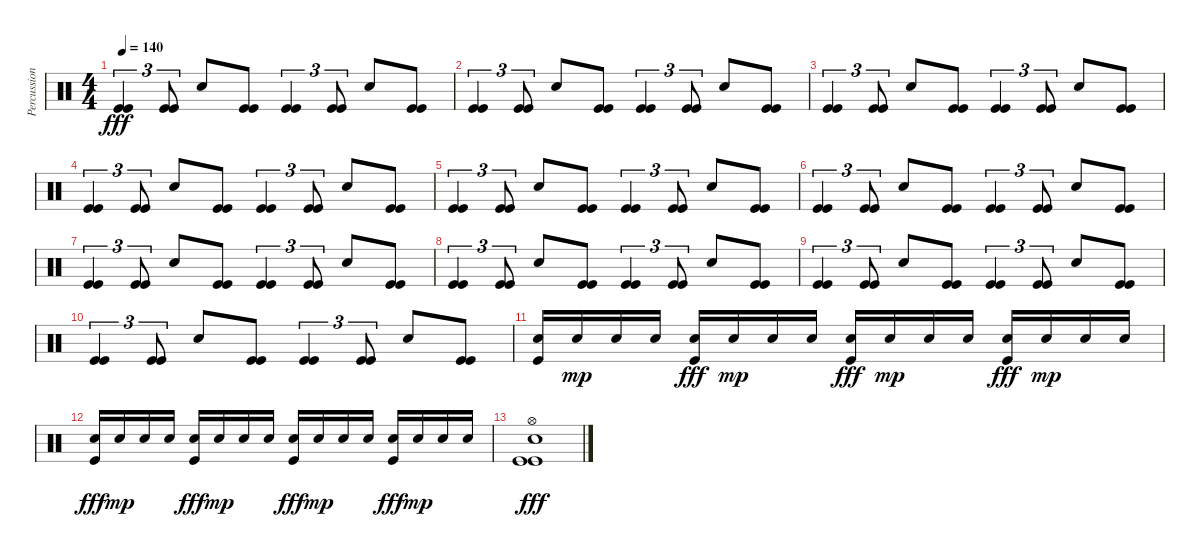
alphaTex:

\track ("Percussions" "Percussion") {instrument percussion}
\staff {score}
\articulation defaults
\ts (4 4)
\tempo 140
\clef neutral
\ks c
("Kick (hit)" "Kick (hit)").4{tu (3 2) dy fff} ("Kick (hit)" "Kick (hit)").8{tu (3 2)} "Snare (hit) 2".8 ("Kick (hit)" "Kick (hit)").8 ("Kick (hit)" "Kick (hit)").4{tu (3 2)} ("Kick (hit)" "Kick (hit)").8{tu (3 2)} "Snare (hit) 2".8 ("Kick (hit)" "Kick (hit)").8 |
("Kick (hit)" "Kick (hit)").4{tu (3 2)} ("Kick (hit)" "Kick (hit)").8{tu (3 2)} "Snare (hit) 2".8 ("Kick (hit)" "Kick (hit)").8 ("Kick (hit)" "Kick (hit)").4{tu (3 2)} ("Kick (hit)" "Kick (hit)").8{tu (3 2)} "Snare (hit) 2".8 ("Kick (hit)" "Kick (hit)").8 |
("Kick (hit)" "Kick (hit)").4{tu (3 2)} ("Kick (hit)" "Kick (hit)").8{tu (3 2)} "Snare (hit) 2".8 ("Kick (hit)" "Kick (hit)").8 ("Kick (hit)" "Kick (hit)").4{tu (3 2)} ("Kick (hit)" "Kick (hit)").8{tu (3 2)} "Snare (hit) 2".8 ("Kick (hit)" "Kick (hit)").8 |
("Kick (hit)" "Kick (hit)").4{tu (3 2)} ("Kick (hit)" "Kick (hit)").8{tu (3 2)} "Snare (hit) 2".8 ("Kick (hit)" "Kick (hit)").8 ("Kick (hit)" "Kick (hit)").4{tu (3 2)} ("Kick (hit)" "Kick (hit)").8{tu (3 2)} "Snare (hit) 2".8 ("Kick (hit)" "Kick (hit)").8 |
("Kick (hit)" "Kick (hit)").4{tu (3 2)} ("Kick (hit)" "Kick (hit)").8{tu (3 2)} "Snare (hit) 2".8 ("Kick (hit)" "Kick (hit)").8 ("Kick (hit)" "Kick (hit)").4{tu (3 2)} ("Kick (hit)" "Kick (hit)").8{tu (3 2)} "Snare (hit) 2".8 ("Kick (hit)" "Kick (hit)").8 |
("Kick (hit)" "Kick (hit)").4{tu (3 2)} ("Kick (hit)" "Kick (hit)").8{tu (3 2)} "Snare (hit) 2".8 ("Kick (hit)" "Kick (hit)").8 ("Kick (hit)" "Kick (hit)").4{tu (3 2)} ("Kick (hit)" "Kick (hit)").8{tu (3 2)} "Snare (hit) 2".8 ("Kick (hit)" "Kick (hit)").8 |
("Kick (hit)" "Kick (hit)").4{tu (3 2)} ("Kick (hit)" "Kick (hit)").8{tu (3 2)} "Snare (hit) 2".8 ("Kick (hit)" "Kick (hit)").8 ("Kick (hit)" "Kick (hit)").4{tu (3 2)} ("Kick (hit)" "Kick (hit)").8{tu (3 2)} "Snare (hit) 2".8 ("Kick (hit)" "Kick (hit)").8 |
("Kick (hit)" "Kick (hit)").4{tu (3 2)} ("Kick (hit)" "Kick (hit)").8{tu (3 2)} "Snare (hit) 2".8 ("Kick (hit)" "Kick (hit)").8 ("Kick (hit)" "Kick (hit)").4{tu (3 2)} ("Kick (hit)" "Kick (hit)").8{tu (3 2)} "Snare (hit) 2".8 ("Kick (hit)" "Kick (hit)").8 |
("Kick (hit)" "Kick (hit)").4{tu (3 2)} ("Kick (hit)" "Kick (hit)").8{tu (3 2)} "Snare (hit) 2".8 ("Kick (hit)" "Kick (hit)").8 ("Kick (hit)" "Kick (hit)").4{tu (3 2)} ("Kick (hit)" "Kick (hit)").8{tu (3 2)} "Snare (hit) 2".8 ("Kick (hit)" "Kick (hit)").8 |
("Kick (hit)" "Kick (hit)").4{tu (3 2)} ("Kick (hit)" "Kick (hit)").8{tu (3 2)} "Snare (hit) 2".8 ("Kick (hit)" "Kick (hit)").8 ("Kick (hit)" "Kick (hit)").4{tu (3 2)} ("Kick (hit)" "Kick (hit)").8{tu (3 2)} "Snare (hit) 2".8 ("Kick (hit)" "Kick (hit)").8 |
("Snare (hit) 2" "Kick (hit)").16 "Snare (hit) 2".16{dy mp} "Snare (hit) 2".16 "Snare (hit) 2".16 ("Snare (hit) 2" "Kick (hit)").16{dy fff} "Snare (hit) 2".16{dy mp} "Snare (hit) 2".16 "Snare (hit) 2".16 ("Snare (hit) 2" "Kick (hit)").16{dy fff} "Snare (hit) 2".16{dy mp} "Snare (hit) 2".16 "Snare (hit) 2".16 ("Snare (hit) 2" "Kick (hit)").16{dy fff} "Snare (hit) 2".16{dy mp} "Snare (hit) 2".16 "Snare (hit) 2".16 |
("Snare (hit) 2" "Kick (hit)").16{dy fff} "Snare (hit) 2".16{dy mp} "Snare (hit) 2".16 "Snare (hit) 2".16 ("Snare (hit) 2" "Kick (hit)").16{dy fff} "Snare (hit) 2".16{dy mp} "Snare (hit) 2".16 "Snare (hit) 2".16 ("Snare (hit) 2" "Kick (hit)").16{dy fff} "Snare (hit) 2".16{dy mp} "Snare (hit) 2".16 "Snare (hit) 2".16 ("Snare (hit) 2" "Kick (hit)").16{dy fff} "Snare (hit) 2".16{dy mp} "Snare (hit) 2".16 "Snare (hit) 2".16 |
("Kick (hit)" "Kick (hit)" "Snare (hit) 2" "Hi-Hat (open)").1{dy fff}
